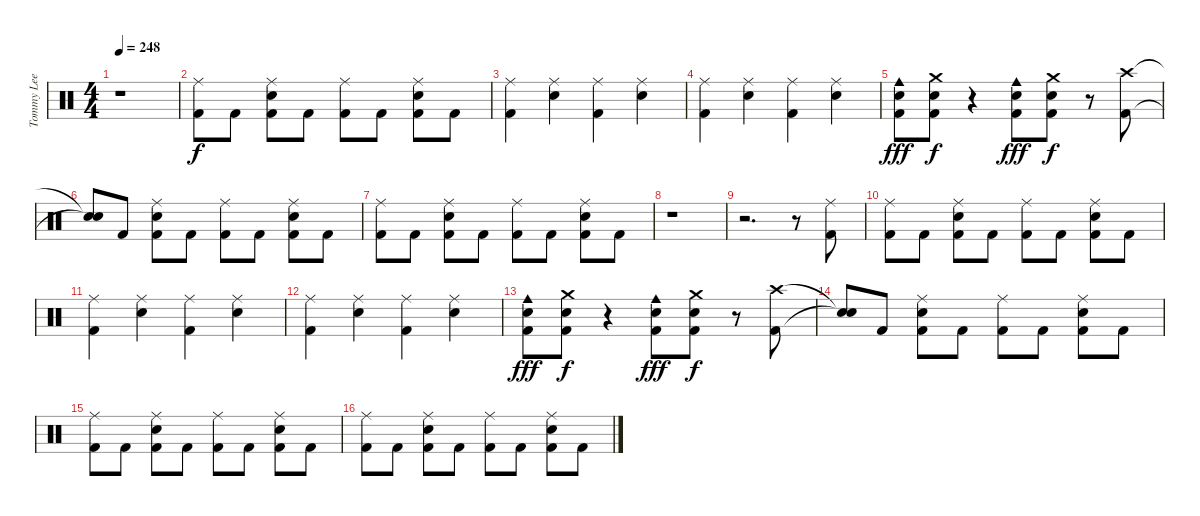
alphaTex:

\track ("Tommy Lee" "Tommy Lee") {instrument percussion}
\staff {score}
\articulation defaults
\ts (4 4)
\tempo 248
\clef neutral
\ks c
r.1{dy f} |
("Ride (middle)" "Kick (hit) 2").8 "Kick (hit) 2".8 ("Ride (middle)" "Electric Snare (hit)" "Kick (hit) 2").8 "Kick (hit) 2".8 ("Ride (middle)" "Kick (hit) 2").8 "Kick (hit) 2".8 ("Ride (middle)" "Electric Snare (hit)" "Kick (hit) 2").8 "Kick (hit) 2".8 |
("Ride (middle)" "Kick (hit) 2").4 ("Ride (middle)" "Electric Snare (hit)").4 ("Ride (middle)" "Kick (hit) 2").4 ("Ride (middle)" "Electric Snare (hit)").4 |
("Ride (middle)" "Kick (hit) 2").4 ("Ride (middle)" "Electric Snare (hit)").4 ("Ride (middle)" "Kick (hit) 2").4 ("Ride (middle)" "Electric Snare (hit)").4 |
("Cowbell medium (hit)" "Electric Snare (hit)" "Kick (hit) 2").8{dy fff} ("Crash medium (hit)" "Electric Snare (hit)" "Kick (hit) 2").8{dy f} r.4 ("Cowbell medium (hit)" "Electric Snare (hit)" "Kick (hit) 2").8{dy fff} ("Crash medium (hit)" "Electric Snare (hit)" "Kick (hit) 2").8{dy f} r.8 ("Crash high (hit)" "Kick (hit) 2").8 |
("Snare (hit)"{t} "Snare (hit)"{t}).8 "Kick (hit) 2".8 ("Ride (middle)" "Electric Snare (hit)" "Kick (hit) 2").8 "Kick (hit) 2".8 ("Ride (middle)" "Kick (hit) 2").8 "Kick (hit) 2".8 ("Ride (middle)" "Electric Snare (hit)" "Kick (hit) 2").8 "Kick (hit) 2".8 |
("Ride (middle)" "Kick (hit) 2").8 "Kick (hit) 2".8 ("Ride (middle)" "Electric Snare (hit)" "Kick (hit) 2").8 "Kick (hit) 2".8 ("Ride (middle)" "Kick (hit) 2").8 "Kick (hit) 2".8 ("Ride (middle)" "Electric Snare (hit)" "Kick (hit) 2").8 "Kick (hit) 2".8 |
r.1 |
r.2{d} r.8 ("Ride (middle)" "Kick (hit) 2").8 |
("Ride (middle)" "Kick (hit) 2").8 "Kick (hit) 2".8 ("Ride (middle)" "Electric Snare (hit)" "Kick (hit) 2").8 "Kick (hit) 2".8 ("Ride (middle)" "Kick (hit) 2").8 "Kick (hit) 2".8 ("Ride (middle)" "Electric Snare (hit)" "Kick (hit) 2").8 "Kick (hit) 2".8 |
("Ride (middle)" "Kick (hit) 2").4 ("Ride (middle)" "Electric Snare (hit)").4 ("Ride (middle)" "Kick (hit) 2").4 ("Ride (middle)" "Electric Snare (hit)").4 |
("Ride (middle)" "Kick (hit) 2").4 ("Ride (middle)" "Electric Snare (hit)").4 ("Ride (middle)" "Kick (hit) 2").4 ("Ride (middle)" "Electric Snare (hit)").4 |
("Cowbell medium (hit)" "Electric Snare (hit)" "Kick (hit) 2").8{dy fff} ("Crash medium (hit)" "Electric Snare (hit)" "Kick (hit) 2").8{dy f} r.4 ("Cowbell medium (hit)" "Electric Snare (hit)" "Kick (hit) 2").8{dy fff} ("Crash medium (hit)" "Electric Snare (hit)" "Kick (hit) 2").8{dy f} r.8 ("Crash high (hit)" "Kick (hit) 2").8 |
("Snare (hit)"{t} "Snare (hit)"{t}).8 "Kick (hit) 2".8 ("Ride (middle)" "Electric Snare (hit)" "Kick (hit) 2").8 "Kick (hit) 2".8 ("Ride (middle)" "Kick (hit) 2").8 "Kick (hit) 2".8 ("Ride (middle)" "Electric Snare (hit)" "Kick (hit) 2").8 "Kick (hit) 2".8 |
("Ride (middle)" "Kick (hit) 2").8 "Kick (hit) 2".8 ("Ride (middle)" "Electric Snare (hit)" "Kick (hit) 2").8 "Kick (hit) 2".8 ("Ride (middle)" "Kick (hit) 2").8 "Kick (hit) 2".8 ("Ride (middle)" "Electric Snare (hit)" "Kick (hit) 2").8 "Kick (hit) 2".8 |
("Ride (middle)" "Kick (hit) 2").8 "Kick (hit) 2".8 ("Ride (middle)" "Electric Snare (hit)" "Kick (hit) 2").8 "Kick (hit) 2".8 ("Ride (middle)" "Kick (hit) 2").8 "Kick (hit) 2".8 ("Ride (middle)" "Electric Snare (hit)" "Kick (hit) 2").8 "Kick (hit) 2".8
